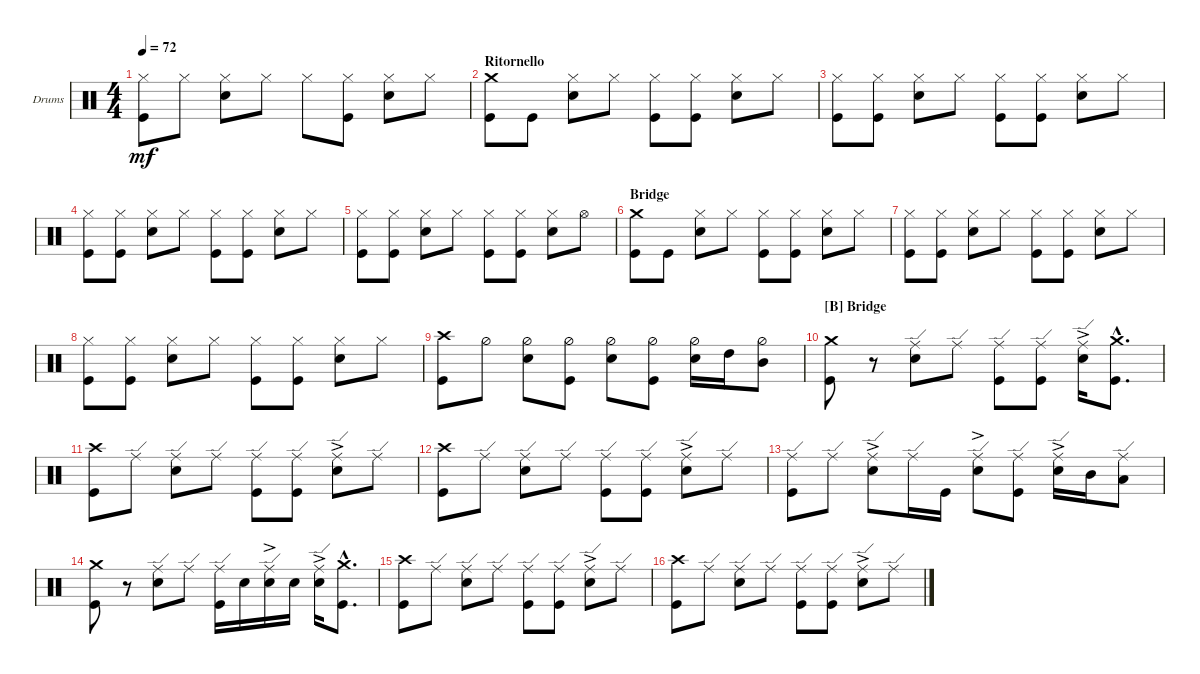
\defaultSystemsLayout 4
\bracketExtendMode groupsimilarinstruments
\firstSystemTrackNameOrientation horizontal
\otherSystemsTrackNameOrientation horizontal
\track ("Drums" "Drums") {instrument percussion}
\staff {score}
\articulation defaults
\ts (4 4)
\tempo 72
\clef neutral
\ks c
("Kick (hit)" "Hi-Hat (closed)").8{dy mf} "Hi-Hat (closed)".8 ("Hi-Hat (closed)" "Snare (hit) 2").8 "Hi-Hat (closed)".8 "Hi-Hat (closed)".8 ("Hi-Hat (closed)" "Kick (hit)").8 ("Hi-Hat (closed)" "Snare (hit) 2").8 "Hi-Hat (closed)".8 |
\section ("" "Ritornello")
("Kick (hit)" "Crash medium (hit)").8 "Kick (hit)".8 ("Hi-Hat (closed)" "Snare (hit) 2").8 "Hi-Hat (closed)".8 ("Hi-Hat (closed)" "Kick (hit)").8 ("Hi-Hat (closed)" "Kick (hit)").8 ("Hi-Hat (closed)" "Snare (hit) 2").8 "Hi-Hat (closed)".8 |
("Kick (hit)" "Hi-Hat (closed)").8 ("Hi-Hat (closed)" "Kick (hit)").8 ("Hi-Hat (closed)" "Snare (hit) 2").8 "Hi-Hat (closed)".8 ("Hi-Hat (closed)" "Kick (hit)").8 ("Hi-Hat (closed)" "Kick (hit)").8 ("Hi-Hat (closed)" "Snare (hit) 2").8 "Hi-Hat (closed)".8 |
("Kick (hit)" "Hi-Hat (closed)").8 ("Hi-Hat (closed)" "Kick (hit)").8 ("Hi-Hat (closed)" "Snare (hit) 2").8 "Hi-Hat (closed)".8 ("Hi-Hat (closed)" "Kick (hit)").8 ("Hi-Hat (closed)" "Kick (hit)").8 ("Hi-Hat (closed)" "Snare (hit) 2").8 "Hi-Hat (closed)".8 |
("Kick (hit)" "Hi-Hat (closed)").8 ("Hi-Hat (closed)" "Kick (hit)").8 ("Hi-Hat (closed)" "Snare (hit) 2").8 "Hi-Hat (closed)".8 ("Hi-Hat (closed)" "Kick (hit)").8 ("Hi-Hat (closed)" "Kick (hit)").8 ("Hi-Hat (closed)" "Snare (hit) 2").8 "Hi-Hat (open)".8 |
\section ("" "Bridge")
("Kick (hit)" "Crash medium (hit)").8 "Kick (hit)".8 ("Hi-Hat (closed)" "Snare (hit) 2").8 "Hi-Hat (closed)".8 ("Hi-Hat (closed)" "Kick (hit)").8 ("Hi-Hat (closed)" "Kick (hit)").8 ("Hi-Hat (closed)" "Snare (hit) 2").8 "Hi-Hat (closed)".8 |
("Kick (hit)" "Hi-Hat (closed)").8 ("Hi-Hat (closed)" "Kick (hit)").8 ("Hi-Hat (closed)" "Snare (hit) 2").8 "Hi-Hat (closed)".8 ("Hi-Hat (closed)" "Kick (hit)").8 ("Hi-Hat (closed)" "Kick (hit)").8 ("Hi-Hat (closed)" "Snare (hit) 2").8 "Hi-Hat (closed)".8 |
("Kick (hit)" "Hi-Hat (closed)").8 ("Hi-Hat (closed)" "Kick (hit)").8 ("Hi-Hat (closed)" "Snare (hit) 2").8 "Hi-Hat (closed)".8 ("Hi-Hat (closed)" "Kick (hit)").8 ("Hi-Hat (closed)" "Kick (hit)").8 ("Hi-Hat (closed)" "Snare (hit) 2").8 "Hi-Hat (closed)".8 |
("Kick (hit)" "Crash high (hit)").8 "Hi-Hat (half)".8 ("Hi-Hat (half)" "Snare (hit) 2").8 ("Hi-Hat (half)" "Kick (hit)").8 ("Hi-Hat (half)" "Snare (hit) 2").8 ("Hi-Hat (half)" "Kick (hit)").8 ("Hi-Hat (half)" "Snare (hit) 2").16 "High Tom (hit)".16 ("Mid Tom (hit)" "Hi-Hat (half)").8 |
\section ("B" "Bridge")
("Kick (hit)" "Crash medium (hit)").8 r.8 ("Snare (hit) 2" "Ride (edge)").8 "Ride (edge)".8 ("Kick (hit)" "Ride (edge)").8 ("Kick (hit)" "Ride (edge)").8 ("Snare (hit) 2"{ac} "Ride (edge)").16 ("Kick (hit)"{hac} "Crash medium (hit)").8{d} |
("Kick (hit)" "Crash high (hit)").8 "Ride (edge)".8 ("Snare (hit) 2" "Ride (edge)").8 "Ride (edge)".8 ("Kick (hit)" "Ride (edge)").8 ("Kick (hit)" "Ride (edge)").8 ("Snare (hit) 2"{ac} "Ride (edge)").8 "Ride (edge)".8 |
("Kick (hit)" "Crash high (hit)").8 "Ride (edge)".8 ("Snare (hit) 2" "Ride (edge)").8 "Ride (edge)".8 ("Kick (hit)" "Ride (edge)").8 ("Kick (hit)" "Ride (edge)").8 ("Snare (hit) 2"{ac} "Ride (edge)").8 "Ride (edge)".8 |
("Kick (hit)" "Ride (edge)").8 "Ride (edge)".8 ("Snare (hit) 2"{ac} "Ride (edge)").8 "Ride (edge)".16 "Kick (hit)".16 ("Ride (edge)" "Snare (hit) 2"{ac}).8 ("Ride (edge)" "Kick (hit)").8 ("Snare (hit) 2"{ac} "Ride (edge)").16 "Mid Tom (hit)".16 ("Ride (edge)" "Low Tom (hit)").8 |
("Kick (hit)" "Crash medium (hit)").8 r.8 ("Snare (hit) 2" "Ride (edge)").8 "Ride (edge)".8 ("Kick (hit)" "Ride (edge)").16 "Snare (hit) 2".16 ("Ride (edge)" "Snare (hit) 2"{ac}).16 "Snare (hit) 2".16 ("Snare (hit) 2"{ac} "Ride (edge)").16 ("Kick (hit)"{hac} "Crash medium (hit)").8{d} |
("Kick (hit)" "Crash high (hit)").8 "Ride (edge)".8 ("Snare (hit) 2" "Ride (edge)").8 "Ride (edge)".8 ("Kick (hit)" "Ride (edge)").8 ("Kick (hit)" "Ride (edge)").8 ("Snare (hit) 2"{ac} "Ride (edge)").8 "Ride (edge)".8 |
("Kick (hit)" "Crash high (hit)").8 "Ride (edge)".8 ("Snare (hit) 2" "Ride (edge)").8 "Ride (edge)".8 ("Kick (hit)" "Ride (edge)").8 ("Kick (hit)" "Ride (edge)").8 ("Snare (hit) 2"{ac} "Ride (edge)").8 "Ride (edge)".8
